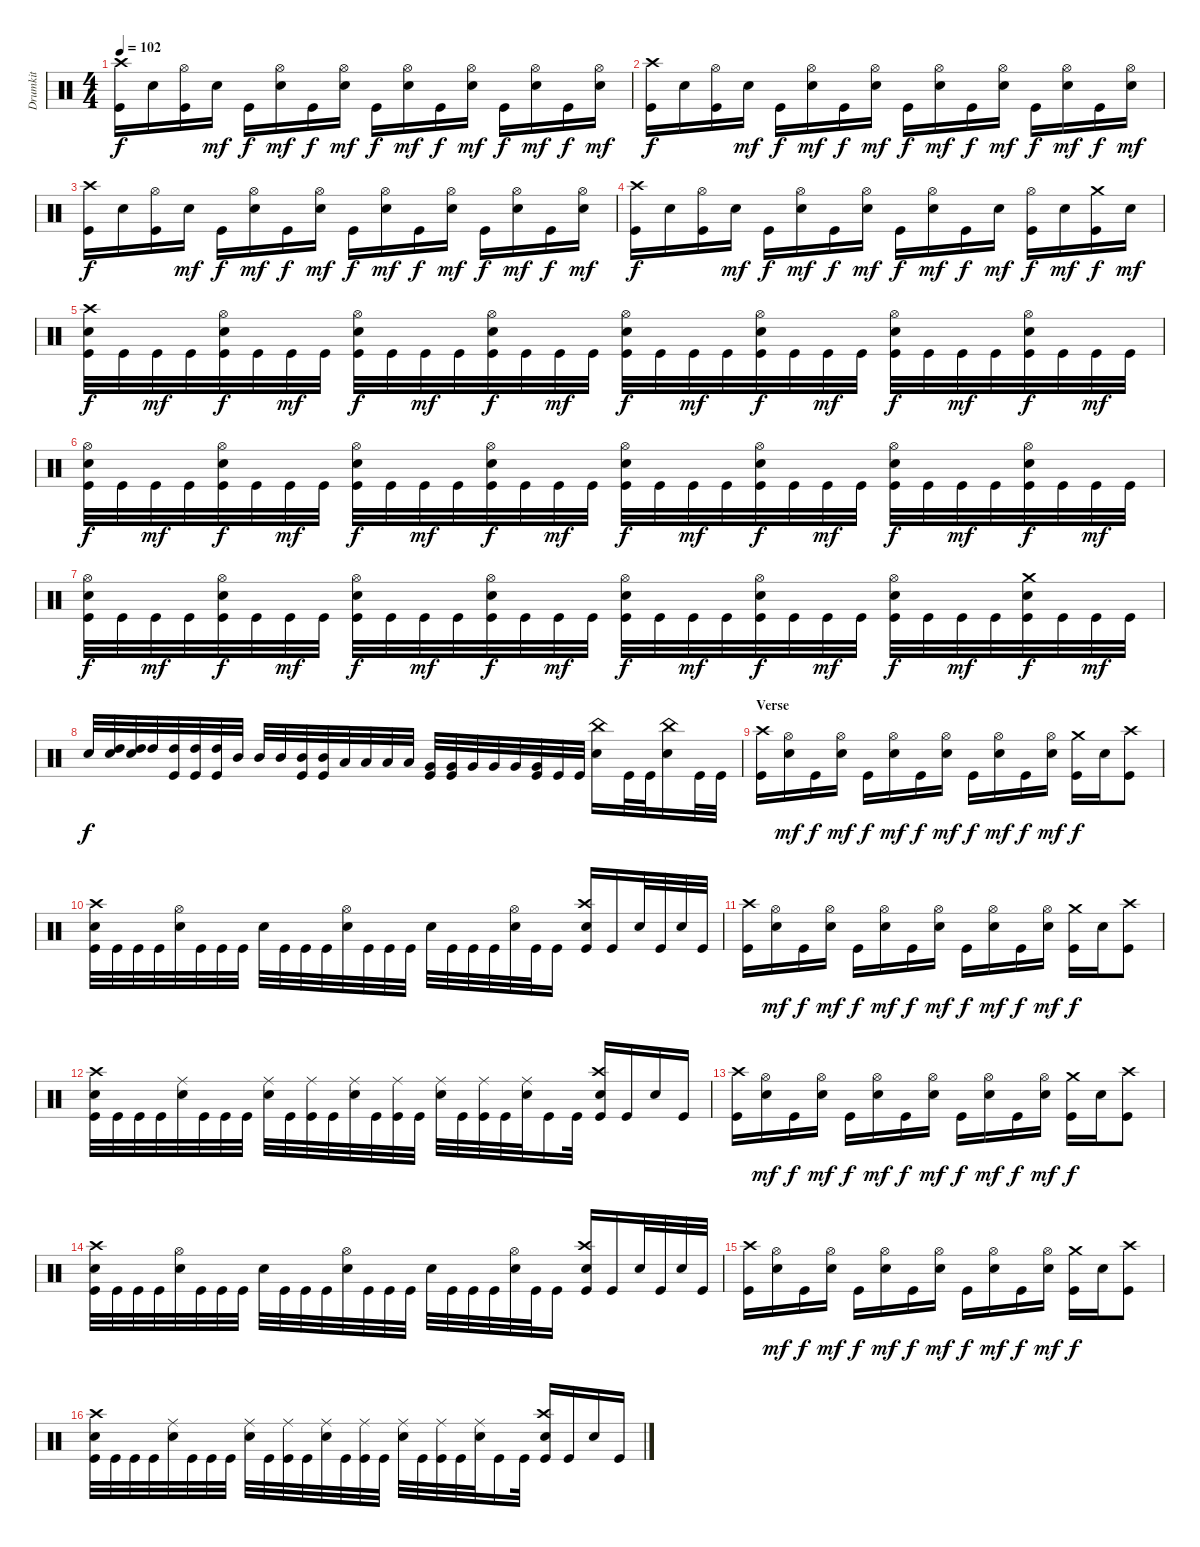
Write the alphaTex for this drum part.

\track ("Drumkit" "Drumkit") {instrument percussion}
\staff {score}
\articulation defaults
\ts (4 4)
\tempo 102
\clef neutral
\ks c
("Kick (hit)" "Crash high (hit)").16{dy f} "Snare (hit) 2".16 ("Kick (hit)" "Hi-Hat (open)").16 "Snare (hit) 2".16{dy mf} "Kick (hit)".16{dy f} ("Snare (hit) 2" "Hi-Hat (open)").16{dy mf} "Kick (hit)".16{dy f} ("Snare (hit) 2" "Hi-Hat (open)").16{dy mf} "Kick (hit)".16{dy f} ("Snare (hit) 2" "Hi-Hat (open)").16{dy mf} "Kick (hit)".16{dy f} ("Snare (hit) 2" "Hi-Hat (open)").16{dy mf} "Kick (hit)".16{dy f} ("Snare (hit) 2" "Hi-Hat (open)").16{dy mf} "Kick (hit)".16{dy f} ("Snare (hit) 2" "Hi-Hat (open)").16{dy mf} |
("Kick (hit)" "Crash high (hit)").16{dy f} "Snare (hit) 2".16 ("Kick (hit)" "Hi-Hat (open)").16 "Snare (hit) 2".16{dy mf} "Kick (hit)".16{dy f} ("Snare (hit) 2" "Hi-Hat (open)").16{dy mf} "Kick (hit)".16{dy f} ("Snare (hit) 2" "Hi-Hat (open)").16{dy mf} "Kick (hit)".16{dy f} ("Snare (hit) 2" "Hi-Hat (open)").16{dy mf} "Kick (hit)".16{dy f} ("Snare (hit) 2" "Hi-Hat (open)").16{dy mf} "Kick (hit)".16{dy f} ("Snare (hit) 2" "Hi-Hat (open)").16{dy mf} "Kick (hit)".16{dy f} ("Snare (hit) 2" "Hi-Hat (open)").16{dy mf} |
("Kick (hit)" "Crash high (hit)").16{dy f} "Snare (hit) 2".16 ("Kick (hit)" "Hi-Hat (open)").16 "Snare (hit) 2".16{dy mf} "Kick (hit)".16{dy f} ("Snare (hit) 2" "Hi-Hat (open)").16{dy mf} "Kick (hit)".16{dy f} ("Snare (hit) 2" "Hi-Hat (open)").16{dy mf} "Kick (hit)".16{dy f} ("Snare (hit) 2" "Hi-Hat (open)").16{dy mf} "Kick (hit)".16{dy f} ("Snare (hit) 2" "Hi-Hat (open)").16{dy mf} "Kick (hit)".16{dy f} ("Snare (hit) 2" "Hi-Hat (open)").16{dy mf} "Kick (hit)".16{dy f} ("Snare (hit) 2" "Hi-Hat (open)").16{dy mf} |
("Kick (hit)" "Crash high (hit)").16{dy f} "Snare (hit) 2".16 ("Kick (hit)" "Hi-Hat (open)").16 "Snare (hit) 2".16{dy mf} "Kick (hit)".16{dy f} ("Snare (hit) 2" "Hi-Hat (open)").16{dy mf} "Kick (hit)".16{dy f} ("Snare (hit) 2" "Hi-Hat (open)").16{dy mf} "Kick (hit)".16{dy f} ("Snare (hit) 2" "Hi-Hat (open)").16{dy mf} "Kick (hit)".16{dy f} "Snare (hit) 2".16{dy mf} ("Kick (hit)" "Hi-Hat (open)").16{dy f} "Snare (hit) 2".16{dy mf} ("Kick (hit)" "Crash medium (hit)").16{dy f} "Snare (hit) 2".16{dy mf} |
("Snare (hit) 2" "Kick (hit)" "Crash high (hit)").32{dy f} "Kick (hit)".32 "Kick (hit)".32{dy mf} "Kick (hit)".32 ("Snare (hit) 2" "Kick (hit)" "Hi-Hat (open)").32{dy f} "Kick (hit)".32 "Kick (hit)".32{dy mf} "Kick (hit)".32 ("Snare (hit) 2" "Kick (hit)" "Hi-Hat (open)").32{dy f} "Kick (hit)".32 "Kick (hit)".32{dy mf} "Kick (hit)".32 ("Snare (hit) 2" "Kick (hit)" "Hi-Hat (open)").32{dy f} "Kick (hit)".32 "Kick (hit)".32{dy mf} "Kick (hit)".32 ("Snare (hit) 2" "Kick (hit)" "Hi-Hat (open)").32{dy f} "Kick (hit)".32 "Kick (hit)".32{dy mf} "Kick (hit)".32 ("Snare (hit) 2" "Kick (hit)" "Hi-Hat (open)").32{dy f} "Kick (hit)".32 "Kick (hit)".32{dy mf} "Kick (hit)".32 ("Snare (hit) 2" "Kick (hit)" "Hi-Hat (open)").32{dy f} "Kick (hit)".32 "Kick (hit)".32{dy mf} "Kick (hit)".32 ("Snare (hit) 2" "Kick (hit)" "Hi-Hat (open)").32{dy f} "Kick (hit)".32 "Kick (hit)".32{dy mf} "Kick (hit)".32 |
("Snare (hit) 2" "Kick (hit)" "Hi-Hat (open)").32{dy f} "Kick (hit)".32 "Kick (hit)".32{dy mf} "Kick (hit)".32 ("Snare (hit) 2" "Kick (hit)" "Hi-Hat (open)").32{dy f} "Kick (hit)".32 "Kick (hit)".32{dy mf} "Kick (hit)".32 ("Snare (hit) 2" "Kick (hit)" "Hi-Hat (open)").32{dy f} "Kick (hit)".32 "Kick (hit)".32{dy mf} "Kick (hit)".32 ("Snare (hit) 2" "Kick (hit)" "Hi-Hat (open)").32{dy f} "Kick (hit)".32 "Kick (hit)".32{dy mf} "Kick (hit)".32 ("Snare (hit) 2" "Kick (hit)" "Hi-Hat (open)").32{dy f} "Kick (hit)".32 "Kick (hit)".32{dy mf} "Kick (hit)".32 ("Snare (hit) 2" "Kick (hit)" "Hi-Hat (open)").32{dy f} "Kick (hit)".32 "Kick (hit)".32{dy mf} "Kick (hit)".32 ("Snare (hit) 2" "Kick (hit)" "Hi-Hat (open)").32{dy f} "Kick (hit)".32 "Kick (hit)".32{dy mf} "Kick (hit)".32 ("Snare (hit) 2" "Kick (hit)" "Hi-Hat (open)").32{dy f} "Kick (hit)".32 "Kick (hit)".32{dy mf} "Kick (hit)".32 |
("Snare (hit) 2" "Kick (hit)" "Hi-Hat (open)").32{dy f} "Kick (hit)".32 "Kick (hit)".32{dy mf} "Kick (hit)".32 ("Snare (hit) 2" "Kick (hit)" "Hi-Hat (open)").32{dy f} "Kick (hit)".32 "Kick (hit)".32{dy mf} "Kick (hit)".32 ("Snare (hit) 2" "Kick (hit)" "Hi-Hat (open)").32{dy f} "Kick (hit)".32 "Kick (hit)".32{dy mf} "Kick (hit)".32 ("Snare (hit) 2" "Kick (hit)" "Hi-Hat (open)").32{dy f} "Kick (hit)".32 "Kick (hit)".32{dy mf} "Kick (hit)".32 ("Snare (hit) 2" "Kick (hit)" "Hi-Hat (open)").32{dy f} "Kick (hit)".32 "Kick (hit)".32{dy mf} "Kick (hit)".32 ("Snare (hit) 2" "Kick (hit)" "Hi-Hat (open)").32{dy f} "Kick (hit)".32 "Kick (hit)".32{dy mf} "Kick (hit)".32 ("Snare (hit) 2" "Kick (hit)" "Hi-Hat (open)").32{dy f} "Kick (hit)".32 "Kick (hit)".32{dy mf} "Kick (hit)".32 ("Snare (hit) 2" "Kick (hit)" "Crash medium (hit)").32{dy f} "Kick (hit)".32 "Kick (hit)".32{dy mf} "Kick (hit)".32 |
"Snare (hit) 2".32{dy f} ("Snare (hit) 2" "High Tom (hit)").32 ("Snare (hit) 2" "High Tom (hit)").32 "High Tom (hit)".32 ("Kick (hit)" "High Tom (hit)").32 ("Kick (hit)" "High Tom (hit)").32 ("Kick (hit)" "High Tom (hit)").32 "Mid Tom (hit)".32 "Mid Tom (hit)".32 "Mid Tom (hit)".32 ("Mid Tom (hit)" "Kick (hit)").32 ("Mid Tom (hit)" "Kick (hit)").32 "Low Tom (hit)".32 "Low Tom (hit)".32 "Low Tom (hit)".32 "Low Tom (hit)".32 ("Kick (hit)" "Very Low Tom (hit)").32 ("Kick (hit)" "Very Low Tom (hit)").32 "Very Low Tom (hit)".32 "Very Low Tom (hit)".32 "Very Low Tom (hit)".32 ("Kick (hit)" "Very Low Tom (hit)").32 "Kick (hit)".32 "Kick (hit)".32 ("Snare (hit) 2" "China (hit)").16 "Kick (hit)".32 "Kick (hit)".32 ("Snare (hit) 2" "China (hit)").16 "Kick (hit)".32 "Kick (hit)".32 |
\section ("" "Verse")
("Kick (hit)" "Crash high (hit)").16 ("Snare (hit) 2" "Hi-Hat (open)").16{dy mf} "Kick (hit)".16{dy f} ("Snare (hit) 2" "Hi-Hat (open)").16{dy mf} "Kick (hit)".16{dy f} ("Snare (hit) 2" "Hi-Hat (open)").16{dy mf} "Kick (hit)".16{dy f} ("Snare (hit) 2" "Hi-Hat (open)").16{dy mf} "Kick (hit)".16{dy f} ("Snare (hit) 2" "Hi-Hat (open)").16{dy mf} "Kick (hit)".16{dy f} ("Snare (hit) 2" "Hi-Hat (open)").16{dy mf} ("Kick (hit)" "Crash medium (hit)").16{dy f} "Snare (hit) 2".16 ("Kick (hit)" "Crash high (hit)").8 |
("Snare (hit) 2" "Kick (hit)" "Crash high (hit)").32 "Kick (hit)".32 "Kick (hit)".32 "Kick (hit)".32 ("Snare (hit) 2" "Hi-Hat (open)").32 "Kick (hit)".32 "Kick (hit)".32 "Kick (hit)".32 "Snare (hit) 2".32 "Kick (hit)".32 "Kick (hit)".32 "Kick (hit)".32 ("Snare (hit) 2" "Hi-Hat (open)").32 "Kick (hit)".32 "Kick (hit)".32 "Kick (hit)".32 "Snare (hit) 2".32 "Kick (hit)".32 "Kick (hit)".32 "Kick (hit)".32 ("Snare (hit) 2" "Hi-Hat (open)").32 "Kick (hit)".32 "Kick (hit)".16 ("Snare (hit) 2" "Kick (hit)" "Crash high (hit)").16 "Kick (hit)".16 "Snare (hit) 2".32 "Kick (hit)".32 "Snare (hit) 2".32 "Kick (hit)".32 |
("Kick (hit)" "Crash high (hit)").16 ("Snare (hit) 2" "Hi-Hat (open)").16{dy mf} "Kick (hit)".16{dy f} ("Snare (hit) 2" "Hi-Hat (open)").16{dy mf} "Kick (hit)".16{dy f} ("Snare (hit) 2" "Hi-Hat (open)").16{dy mf} "Kick (hit)".16{dy f} ("Snare (hit) 2" "Hi-Hat (open)").16{dy mf} "Kick (hit)".16{dy f} ("Snare (hit) 2" "Hi-Hat (open)").16{dy mf} "Kick (hit)".16{dy f} ("Snare (hit) 2" "Hi-Hat (open)").16{dy mf} ("Kick (hit)" "Crash medium (hit)").16{dy f} "Snare (hit) 2".16 ("Kick (hit)" "Crash high (hit)").8 |
("Snare (hit) 2" "Kick (hit)" "Crash high (hit)").32 "Kick (hit)".32 "Kick (hit)".32 "Kick (hit)".32 ("Snare (hit) 2" "Ride (middle)").32 "Kick (hit)".32 "Kick (hit)".32 "Kick (hit)".32 ("Snare (hit) 2" "Ride (middle)").32 "Kick (hit)".32 ("Kick (hit)" "Ride (middle)").32 "Kick (hit)".32 ("Snare (hit) 2" "Ride (middle)").32 "Kick (hit)".32 ("Kick (hit)" "Ride (middle)").32 "Kick (hit)".32 ("Snare (hit) 2" "Ride (middle)").32 "Kick (hit)".32 ("Kick (hit)" "Ride (middle)").32 "Kick (hit)".32 ("Snare (hit) 2" "Ride (middle)").32 "Kick (hit)".16 "Kick (hit)".32 ("Snare (hit) 2" "Crash high (hit)" "Kick (hit)").16 "Kick (hit)".16 "Snare (hit) 2".16 "Kick (hit)".16 |
("Kick (hit)" "Crash high (hit)").16 ("Snare (hit) 2" "Hi-Hat (open)").16{dy mf} "Kick (hit)".16{dy f} ("Snare (hit) 2" "Hi-Hat (open)").16{dy mf} "Kick (hit)".16{dy f} ("Snare (hit) 2" "Hi-Hat (open)").16{dy mf} "Kick (hit)".16{dy f} ("Snare (hit) 2" "Hi-Hat (open)").16{dy mf} "Kick (hit)".16{dy f} ("Snare (hit) 2" "Hi-Hat (open)").16{dy mf} "Kick (hit)".16{dy f} ("Snare (hit) 2" "Hi-Hat (open)").16{dy mf} ("Kick (hit)" "Crash medium (hit)").16{dy f} "Snare (hit) 2".16 ("Kick (hit)" "Crash high (hit)").8 |
("Snare (hit) 2" "Kick (hit)" "Crash high (hit)").32 "Kick (hit)".32 "Kick (hit)".32 "Kick (hit)".32 ("Snare (hit) 2" "Hi-Hat (open)").32 "Kick (hit)".32 "Kick (hit)".32 "Kick (hit)".32 "Snare (hit) 2".32 "Kick (hit)".32 "Kick (hit)".32 "Kick (hit)".32 ("Snare (hit) 2" "Hi-Hat (open)").32 "Kick (hit)".32 "Kick (hit)".32 "Kick (hit)".32 "Snare (hit) 2".32 "Kick (hit)".32 "Kick (hit)".32 "Kick (hit)".32 ("Snare (hit) 2" "Hi-Hat (open)").32 "Kick (hit)".32 "Kick (hit)".16 ("Snare (hit) 2" "Kick (hit)" "Crash high (hit)").16 "Kick (hit)".16 "Snare (hit) 2".32 "Kick (hit)".32 "Snare (hit) 2".32 "Kick (hit)".32 |
("Kick (hit)" "Crash high (hit)").16 ("Snare (hit) 2" "Hi-Hat (open)").16{dy mf} "Kick (hit)".16{dy f} ("Snare (hit) 2" "Hi-Hat (open)").16{dy mf} "Kick (hit)".16{dy f} ("Snare (hit) 2" "Hi-Hat (open)").16{dy mf} "Kick (hit)".16{dy f} ("Snare (hit) 2" "Hi-Hat (open)").16{dy mf} "Kick (hit)".16{dy f} ("Snare (hit) 2" "Hi-Hat (open)").16{dy mf} "Kick (hit)".16{dy f} ("Snare (hit) 2" "Hi-Hat (open)").16{dy mf} ("Kick (hit)" "Crash medium (hit)").16{dy f} "Snare (hit) 2".16 ("Kick (hit)" "Crash high (hit)").8 |
("Snare (hit) 2" "Kick (hit)" "Crash high (hit)").32 "Kick (hit)".32 "Kick (hit)".32 "Kick (hit)".32 ("Snare (hit) 2" "Ride (middle)").32 "Kick (hit)".32 "Kick (hit)".32 "Kick (hit)".32 ("Snare (hit) 2" "Ride (middle)").32 "Kick (hit)".32 ("Kick (hit)" "Ride (middle)").32 "Kick (hit)".32 ("Snare (hit) 2" "Ride (middle)").32 "Kick (hit)".32 ("Kick (hit)" "Ride (middle)").32 "Kick (hit)".32 ("Snare (hit) 2" "Ride (middle)").32 "Kick (hit)".32 ("Kick (hit)" "Ride (middle)").32 "Kick (hit)".32 ("Snare (hit) 2" "Ride (middle)").32 "Kick (hit)".16 "Kick (hit)".32 ("Snare (hit) 2" "Crash high (hit)" "Kick (hit)").16 "Kick (hit)".16 "Snare (hit) 2".16 "Kick (hit)".16
